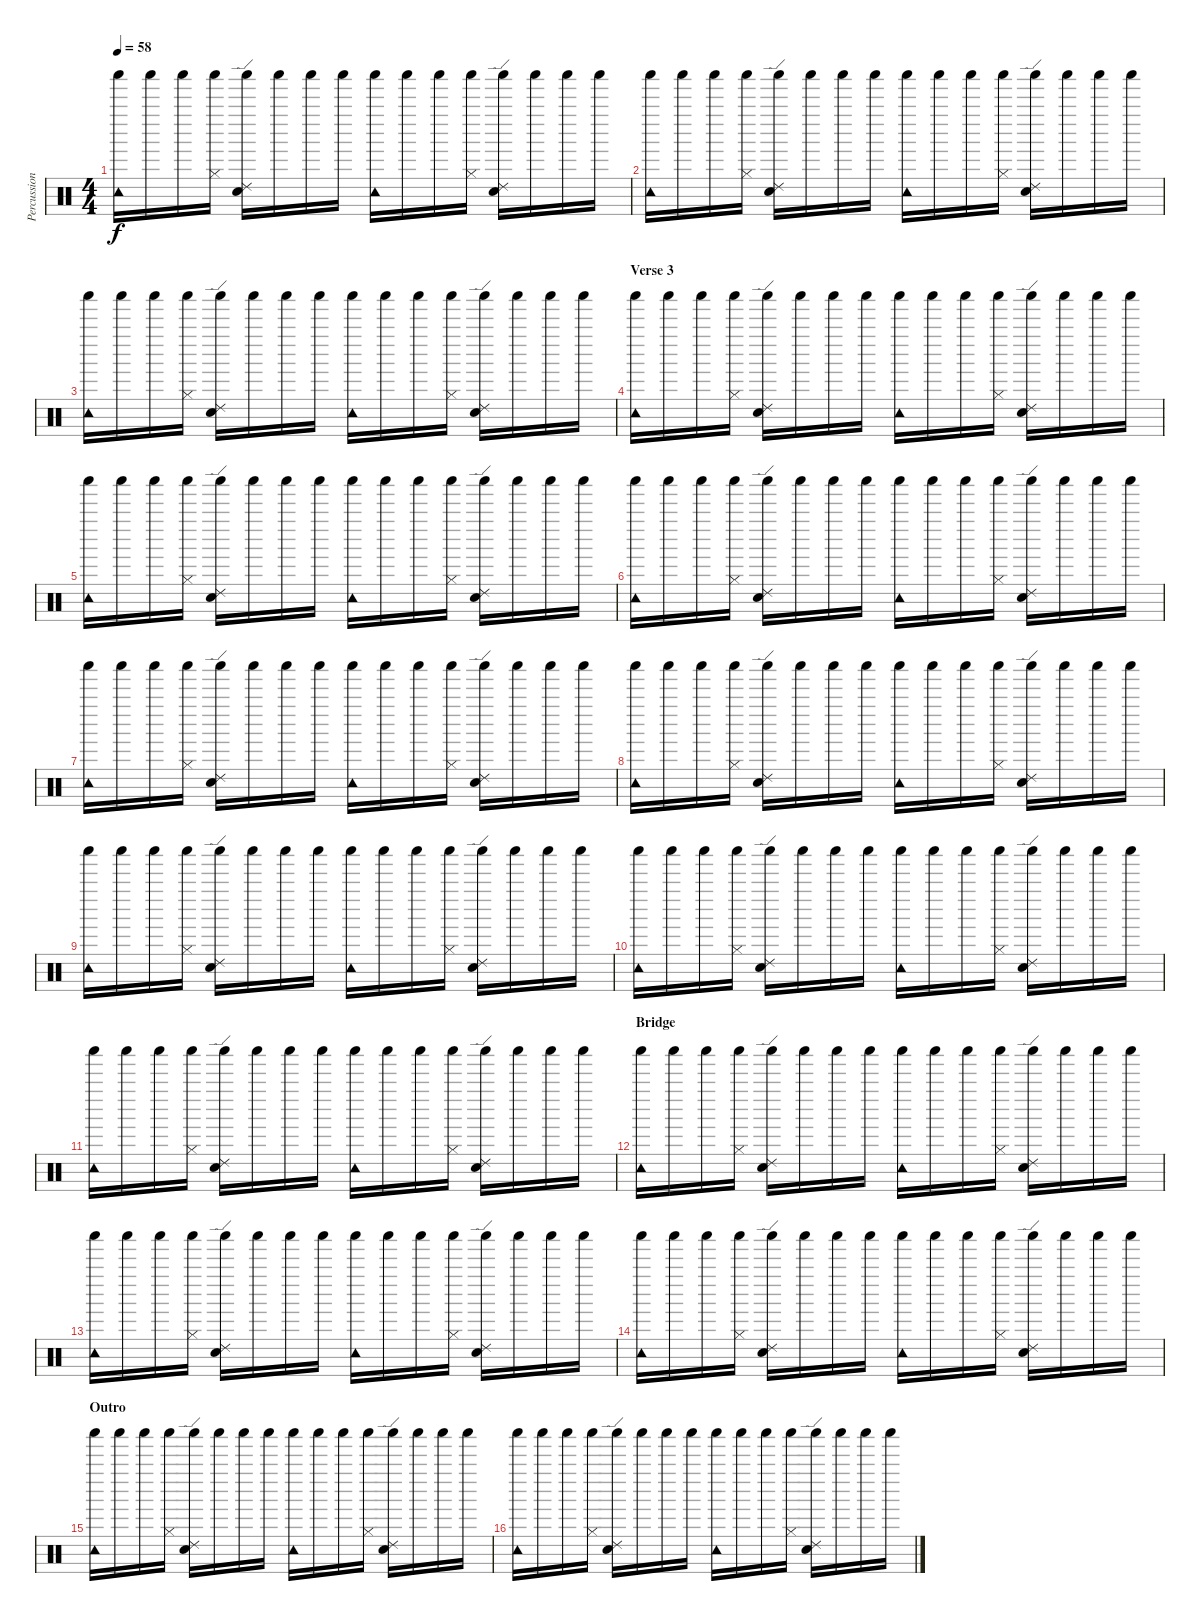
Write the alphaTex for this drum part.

\track ("Percussion" "Percussion") {instrument percussion}
\staff {score}
\articulation defaults
\ts (4 4)
\tempo 58
\clef neutral
\ks c
("Shaker (hit)" "Tambourine (hit)").16{dy f} "Shaker (hit)".16 "Shaker (hit)".16 ("Shaker (hit)" "Hi-Hat (closed)").16 ("Shaker (hit)" "Ride (edge) 2" "Snare (hit) 2").16 "Shaker (hit)".16 "Shaker (hit)".16 "Shaker (hit)".16 ("Shaker (hit)" "Tambourine (hit)").16 "Shaker (hit)".16 "Shaker (hit)".16 ("Shaker (hit)" "Hi-Hat (closed)").16 ("Shaker (hit)" "Ride (edge) 2" "Snare (hit) 2").16 "Shaker (hit)".16 "Shaker (hit)".16 "Shaker (hit)".16 |
("Shaker (hit)" "Tambourine (hit)").16 "Shaker (hit)".16 "Shaker (hit)".16 ("Shaker (hit)" "Hi-Hat (closed)").16 ("Shaker (hit)" "Ride (edge) 2" "Snare (hit) 2").16 "Shaker (hit)".16 "Shaker (hit)".16 "Shaker (hit)".16 ("Shaker (hit)" "Tambourine (hit)").16 "Shaker (hit)".16 "Shaker (hit)".16 ("Shaker (hit)" "Hi-Hat (closed)").16 ("Shaker (hit)" "Ride (edge) 2" "Snare (hit) 2").16 "Shaker (hit)".16 "Shaker (hit)".16 "Shaker (hit)".16 |
("Shaker (hit)" "Tambourine (hit)").16 "Shaker (hit)".16 "Shaker (hit)".16 ("Shaker (hit)" "Hi-Hat (closed)").16 ("Shaker (hit)" "Ride (edge) 2" "Snare (hit) 2").16 "Shaker (hit)".16 "Shaker (hit)".16 "Shaker (hit)".16 ("Shaker (hit)" "Tambourine (hit)").16 "Shaker (hit)".16 "Shaker (hit)".16 ("Shaker (hit)" "Hi-Hat (closed)").16 ("Shaker (hit)" "Ride (edge) 2" "Snare (hit) 2").16 "Shaker (hit)".16 "Shaker (hit)".16 "Shaker (hit)".16 |
\section ("" "Verse 3")
("Shaker (hit)" "Tambourine (hit)").16 "Shaker (hit)".16 "Shaker (hit)".16 ("Shaker (hit)" "Hi-Hat (closed)").16 ("Shaker (hit)" "Ride (edge) 2" "Snare (hit) 2").16 "Shaker (hit)".16 "Shaker (hit)".16 "Shaker (hit)".16 ("Shaker (hit)" "Tambourine (hit)").16 "Shaker (hit)".16 "Shaker (hit)".16 ("Shaker (hit)" "Hi-Hat (closed)").16 ("Shaker (hit)" "Ride (edge) 2" "Snare (hit) 2").16 "Shaker (hit)".16 "Shaker (hit)".16 "Shaker (hit)".16 |
("Shaker (hit)" "Tambourine (hit)").16 "Shaker (hit)".16 "Shaker (hit)".16 ("Shaker (hit)" "Hi-Hat (closed)").16 ("Shaker (hit)" "Ride (edge) 2" "Snare (hit) 2").16 "Shaker (hit)".16 "Shaker (hit)".16 "Shaker (hit)".16 ("Shaker (hit)" "Tambourine (hit)").16 "Shaker (hit)".16 "Shaker (hit)".16 ("Shaker (hit)" "Hi-Hat (closed)").16 ("Shaker (hit)" "Ride (edge) 2" "Snare (hit) 2").16 "Shaker (hit)".16 "Shaker (hit)".16 "Shaker (hit)".16 |
("Shaker (hit)" "Tambourine (hit)").16 "Shaker (hit)".16 "Shaker (hit)".16 ("Shaker (hit)" "Hi-Hat (closed)").16 ("Shaker (hit)" "Ride (edge) 2" "Snare (hit) 2").16 "Shaker (hit)".16 "Shaker (hit)".16 "Shaker (hit)".16 ("Shaker (hit)" "Tambourine (hit)").16 "Shaker (hit)".16 "Shaker (hit)".16 ("Shaker (hit)" "Hi-Hat (closed)").16 ("Shaker (hit)" "Ride (edge) 2" "Snare (hit) 2").16 "Shaker (hit)".16 "Shaker (hit)".16 "Shaker (hit)".16 |
("Shaker (hit)" "Tambourine (hit)").16 "Shaker (hit)".16 "Shaker (hit)".16 ("Shaker (hit)" "Hi-Hat (closed)").16 ("Shaker (hit)" "Ride (edge) 2" "Snare (hit) 2").16 "Shaker (hit)".16 "Shaker (hit)".16 "Shaker (hit)".16 ("Shaker (hit)" "Tambourine (hit)").16 "Shaker (hit)".16 "Shaker (hit)".16 ("Shaker (hit)" "Hi-Hat (closed)").16 ("Shaker (hit)" "Ride (edge) 2" "Snare (hit) 2").16 "Shaker (hit)".16 "Shaker (hit)".16 "Shaker (hit)".16 |
("Shaker (hit)" "Tambourine (hit)").16 "Shaker (hit)".16 "Shaker (hit)".16 ("Shaker (hit)" "Hi-Hat (closed)").16 ("Shaker (hit)" "Ride (edge) 2" "Snare (hit) 2").16 "Shaker (hit)".16 "Shaker (hit)".16 "Shaker (hit)".16 ("Shaker (hit)" "Tambourine (hit)").16 "Shaker (hit)".16 "Shaker (hit)".16 ("Shaker (hit)" "Hi-Hat (closed)").16 ("Shaker (hit)" "Ride (edge) 2" "Snare (hit) 2").16 "Shaker (hit)".16 "Shaker (hit)".16 "Shaker (hit)".16 |
("Shaker (hit)" "Tambourine (hit)").16 "Shaker (hit)".16 "Shaker (hit)".16 ("Shaker (hit)" "Hi-Hat (closed)").16 ("Shaker (hit)" "Ride (edge) 2" "Snare (hit) 2").16 "Shaker (hit)".16 "Shaker (hit)".16 "Shaker (hit)".16 ("Shaker (hit)" "Tambourine (hit)").16 "Shaker (hit)".16 "Shaker (hit)".16 ("Shaker (hit)" "Hi-Hat (closed)").16 ("Shaker (hit)" "Ride (edge) 2" "Snare (hit) 2").16 "Shaker (hit)".16 "Shaker (hit)".16 "Shaker (hit)".16 |
("Shaker (hit)" "Tambourine (hit)").16 "Shaker (hit)".16 "Shaker (hit)".16 ("Shaker (hit)" "Hi-Hat (closed)").16 ("Shaker (hit)" "Ride (edge) 2" "Snare (hit) 2").16 "Shaker (hit)".16 "Shaker (hit)".16 "Shaker (hit)".16 ("Shaker (hit)" "Tambourine (hit)").16 "Shaker (hit)".16 "Shaker (hit)".16 ("Shaker (hit)" "Hi-Hat (closed)").16 ("Shaker (hit)" "Ride (edge) 2" "Snare (hit) 2").16 "Shaker (hit)".16 "Shaker (hit)".16 "Shaker (hit)".16 |
("Shaker (hit)" "Tambourine (hit)").16 "Shaker (hit)".16 "Shaker (hit)".16 ("Shaker (hit)" "Hi-Hat (closed)").16 ("Shaker (hit)" "Ride (edge) 2" "Snare (hit) 2").16 "Shaker (hit)".16 "Shaker (hit)".16 "Shaker (hit)".16 ("Shaker (hit)" "Tambourine (hit)").16 "Shaker (hit)".16 "Shaker (hit)".16 ("Shaker (hit)" "Hi-Hat (closed)").16 ("Shaker (hit)" "Ride (edge) 2" "Snare (hit) 2").16 "Shaker (hit)".16 "Shaker (hit)".16 "Shaker (hit)".16 |
\section ("" "Bridge")
("Shaker (hit)" "Tambourine (hit)").16 "Shaker (hit)".16 "Shaker (hit)".16 ("Shaker (hit)" "Hi-Hat (closed)").16 ("Shaker (hit)" "Ride (edge) 2" "Snare (hit) 2").16 "Shaker (hit)".16 "Shaker (hit)".16 "Shaker (hit)".16 ("Shaker (hit)" "Tambourine (hit)").16 "Shaker (hit)".16 "Shaker (hit)".16 ("Shaker (hit)" "Hi-Hat (closed)").16 ("Shaker (hit)" "Ride (edge) 2" "Snare (hit) 2").16 "Shaker (hit)".16 "Shaker (hit)".16 "Shaker (hit)".16 |
("Shaker (hit)" "Tambourine (hit)").16 "Shaker (hit)".16 "Shaker (hit)".16 ("Shaker (hit)" "Hi-Hat (closed)").16 ("Shaker (hit)" "Ride (edge) 2" "Snare (hit) 2").16 "Shaker (hit)".16 "Shaker (hit)".16 "Shaker (hit)".16 ("Shaker (hit)" "Tambourine (hit)").16 "Shaker (hit)".16 "Shaker (hit)".16 ("Shaker (hit)" "Hi-Hat (closed)").16 ("Shaker (hit)" "Ride (edge) 2" "Snare (hit) 2").16 "Shaker (hit)".16 "Shaker (hit)".16 "Shaker (hit)".16 |
("Shaker (hit)" "Tambourine (hit)").16 "Shaker (hit)".16 "Shaker (hit)".16 ("Shaker (hit)" "Hi-Hat (closed)").16 ("Shaker (hit)" "Ride (edge) 2" "Snare (hit) 2").16 "Shaker (hit)".16 "Shaker (hit)".16 "Shaker (hit)".16 ("Shaker (hit)" "Tambourine (hit)").16 "Shaker (hit)".16 "Shaker (hit)".16 ("Shaker (hit)" "Hi-Hat (closed)").16 ("Shaker (hit)" "Ride (edge) 2" "Snare (hit) 2").16 "Shaker (hit)".16 "Shaker (hit)".16 "Shaker (hit)".16 |
\section ("" "Outro")
("Shaker (hit)" "Tambourine (hit)").16 "Shaker (hit)".16 "Shaker (hit)".16 ("Shaker (hit)" "Hi-Hat (closed)").16 ("Shaker (hit)" "Ride (edge) 2" "Snare (hit) 2").16 "Shaker (hit)".16 "Shaker (hit)".16 "Shaker (hit)".16 ("Shaker (hit)" "Tambourine (hit)").16 "Shaker (hit)".16 "Shaker (hit)".16 ("Shaker (hit)" "Hi-Hat (closed)").16 ("Shaker (hit)" "Ride (edge) 2" "Snare (hit) 2").16 "Shaker (hit)".16 "Shaker (hit)".16 "Shaker (hit)".16 |
("Shaker (hit)" "Tambourine (hit)").16 "Shaker (hit)".16 "Shaker (hit)".16 ("Shaker (hit)" "Hi-Hat (closed)").16 ("Shaker (hit)" "Ride (edge) 2" "Snare (hit) 2").16 "Shaker (hit)".16 "Shaker (hit)".16 "Shaker (hit)".16 ("Shaker (hit)" "Tambourine (hit)").16 "Shaker (hit)".16 "Shaker (hit)".16 ("Shaker (hit)" "Hi-Hat (closed)").16 ("Shaker (hit)" "Ride (edge) 2" "Snare (hit) 2").16 "Shaker (hit)".16 "Shaker (hit)".16 "Shaker (hit)".16
